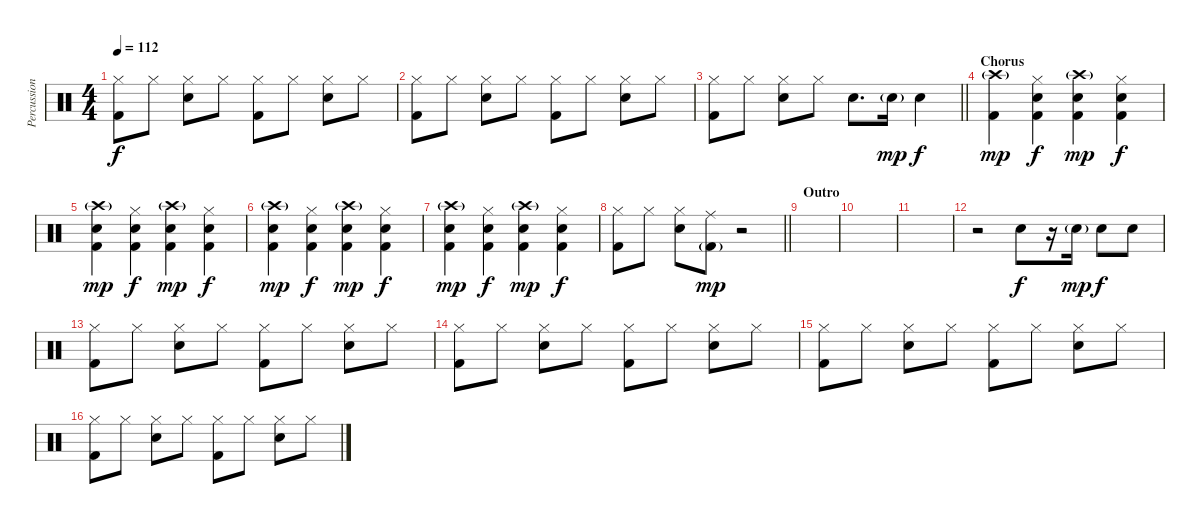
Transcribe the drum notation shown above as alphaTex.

\track ("Percussion" "Percussion") {instrument percussion}
\staff {score}
\articulation defaults
\ts (4 4)
\tempo 112
\clef neutral
\ks c
("Hi-Hat (closed)" "Kick (hit) 2").8{dy f} "Hi-Hat (closed)".8 ("Hi-Hat (closed)" "Snare (hit) 2").8 "Hi-Hat (closed)".8 ("Hi-Hat (closed)" "Kick (hit) 2").8 "Hi-Hat (closed)".8 ("Hi-Hat (closed)" "Snare (hit) 2").8 "Hi-Hat (closed)".8 |
("Hi-Hat (closed)" "Kick (hit) 2").8 "Hi-Hat (closed)".8 ("Hi-Hat (closed)" "Snare (hit) 2").8 "Hi-Hat (closed)".8 ("Hi-Hat (closed)" "Kick (hit) 2").8 "Hi-Hat (closed)".8 ("Hi-Hat (closed)" "Snare (hit) 2").8 "Hi-Hat (closed)".8 |
\barLineRight lightlight
("Hi-Hat (closed)" "Kick (hit) 2").8 "Hi-Hat (closed)".8 ("Hi-Hat (closed)" "Snare (hit) 2").8 "Hi-Hat (closed)".8 "Snare (hit) 2".8{d} "Snare (hit) 2"{g}.16{dy mp} "Snare (hit) 2".4{dy f} |
\section ("" "Chorus")
("Crash high (hit)"{g} "Kick (hit) 2").4{dy mp} ("Hi-Hat (closed)" "Snare (hit) 2" "Kick (hit) 2").4{dy f} ("Crash high (hit)"{g} "Snare (hit) 2" "Kick (hit) 2").4{dy mp} ("Hi-Hat (closed)" "Snare (hit) 2" "Kick (hit) 2").4{dy f} |
("Crash high (hit)"{g} "Snare (hit) 2" "Kick (hit) 2").4{dy mp} ("Hi-Hat (closed)" "Snare (hit) 2" "Kick (hit) 2").4{dy f} ("Crash high (hit)"{g} "Snare (hit) 2" "Kick (hit) 2").4{dy mp} ("Hi-Hat (closed)" "Snare (hit) 2" "Kick (hit) 2").4{dy f} |
("Crash high (hit)"{g} "Snare (hit) 2" "Kick (hit) 2").4{dy mp} ("Hi-Hat (closed)" "Snare (hit) 2" "Kick (hit) 2").4{dy f} ("Crash high (hit)"{g} "Snare (hit) 2" "Kick (hit) 2").4{dy mp} ("Hi-Hat (closed)" "Snare (hit) 2" "Kick (hit) 2").4{dy f} |
("Crash high (hit)"{g} "Snare (hit) 2" "Kick (hit) 2").4{dy mp} ("Hi-Hat (closed)" "Snare (hit) 2" "Kick (hit) 2").4{dy f} ("Crash high (hit)"{g} "Snare (hit) 2" "Kick (hit) 2").4{dy mp} ("Hi-Hat (closed)" "Snare (hit) 2" "Kick (hit) 2").4{dy f} |
\barLineRight lightlight
("Hi-Hat (closed)" "Kick (hit) 2").8 "Hi-Hat (closed)".8 ("Hi-Hat (closed)" "Snare (hit) 2").8 ("Ride (middle)" "Kick (hit) 2"{g}).8{dy mp} r.2 |
\section ("" "Outro")
|
|
|
r.2 "Snare (hit) 2".8{dy f} r.16 "Snare (hit) 2"{g}.16{dy mp} "Snare (hit) 2".8{dy f} "Snare (hit) 2".8 |
("Hi-Hat (closed)" "Kick (hit) 2").8 "Hi-Hat (closed)".8 ("Hi-Hat (closed)" "Snare (hit) 2").8 "Hi-Hat (closed)".8 ("Hi-Hat (closed)" "Kick (hit) 2").8 "Hi-Hat (closed)".8 ("Hi-Hat (closed)" "Snare (hit) 2").8 "Hi-Hat (closed)".8 |
("Hi-Hat (closed)" "Kick (hit) 2").8 "Hi-Hat (closed)".8 ("Hi-Hat (closed)" "Snare (hit) 2").8 "Hi-Hat (closed)".8 ("Hi-Hat (closed)" "Kick (hit) 2").8 "Hi-Hat (closed)".8 ("Hi-Hat (closed)" "Snare (hit) 2").8 "Hi-Hat (closed)".8 |
("Hi-Hat (closed)" "Kick (hit) 2").8 "Hi-Hat (closed)".8 ("Hi-Hat (closed)" "Snare (hit) 2").8 "Hi-Hat (closed)".8 ("Hi-Hat (closed)" "Kick (hit) 2").8 "Hi-Hat (closed)".8 ("Hi-Hat (closed)" "Snare (hit) 2").8 "Hi-Hat (closed)".8 |
("Hi-Hat (closed)" "Kick (hit) 2").8 "Hi-Hat (closed)".8 ("Hi-Hat (closed)" "Snare (hit) 2").8 "Hi-Hat (closed)".8 ("Hi-Hat (closed)" "Kick (hit) 2").8 "Hi-Hat (closed)".8 ("Hi-Hat (closed)" "Snare (hit) 2").8 "Hi-Hat (closed)".8
